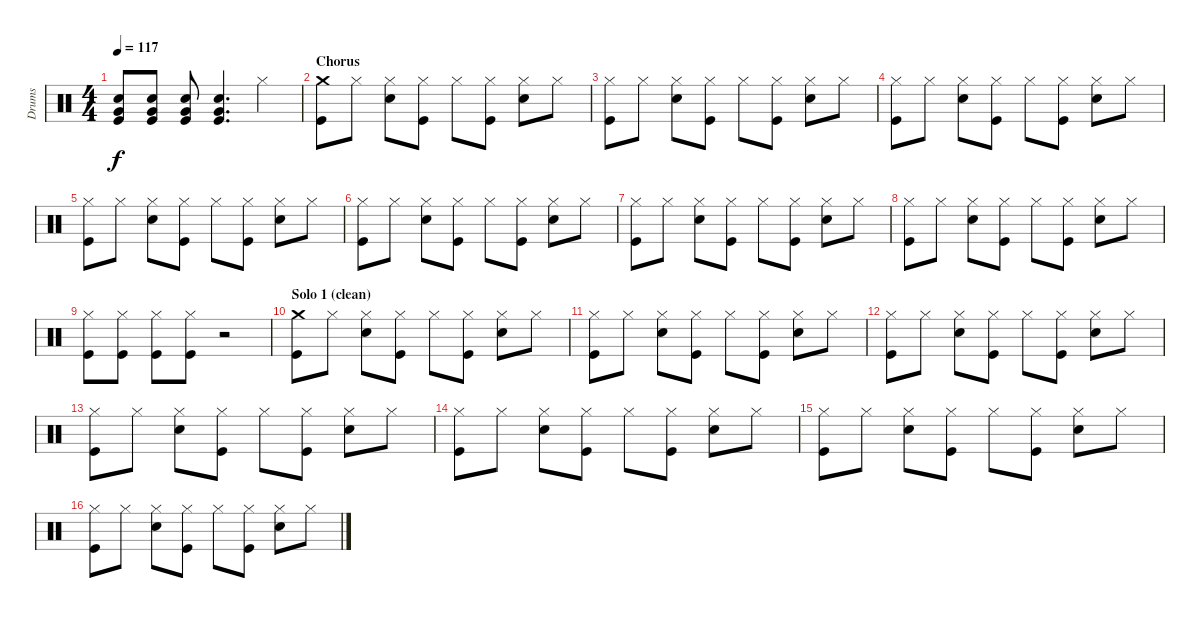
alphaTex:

\track ("Drums" "Drums") {instrument percussion}
\staff {score}
\articulation defaults
\ts (4 4)
\tempo 117
\clef neutral
\ks c
("Very Low Tom (hit)" "Snare (hit) 2" "Kick (hit)").8{dy f} ("Very Low Tom (hit)" "Snare (hit) 2" "Kick (hit)").8 ("Very Low Tom (hit)" "Snare (hit) 2" "Kick (hit)").8 ("Very Low Tom (hit)" "Snare (hit) 2" "Kick (hit)").4{d} "Hi-Hat (closed)".4 |
\section ("" "Chorus")
("Crash medium (hit)" "Kick (hit)").8 "Hi-Hat (closed)".8 ("Hi-Hat (closed)" "Snare (hit) 2").8 ("Hi-Hat (closed)" "Kick (hit)").8 "Hi-Hat (closed)".8 ("Hi-Hat (closed)" "Kick (hit)").8 ("Hi-Hat (closed)" "Snare (hit) 2").8 "Hi-Hat (closed)".8 |
("Hi-Hat (closed)" "Kick (hit)").8 "Hi-Hat (closed)".8 ("Hi-Hat (closed)" "Snare (hit) 2").8 ("Hi-Hat (closed)" "Kick (hit)").8 "Hi-Hat (closed)".8 ("Hi-Hat (closed)" "Kick (hit)").8 ("Hi-Hat (closed)" "Snare (hit) 2").8 "Hi-Hat (closed)".8 |
("Hi-Hat (closed)" "Kick (hit)").8 "Hi-Hat (closed)".8 ("Hi-Hat (closed)" "Snare (hit) 2").8 ("Hi-Hat (closed)" "Kick (hit)").8 "Hi-Hat (closed)".8 ("Hi-Hat (closed)" "Kick (hit)").8 ("Hi-Hat (closed)" "Snare (hit) 2").8 "Hi-Hat (closed)".8 |
("Hi-Hat (closed)" "Kick (hit)").8 "Hi-Hat (closed)".8 ("Hi-Hat (closed)" "Snare (hit) 2").8 ("Hi-Hat (closed)" "Kick (hit)").8 "Hi-Hat (closed)".8 ("Hi-Hat (closed)" "Kick (hit)").8 ("Hi-Hat (closed)" "Snare (hit) 2").8 "Hi-Hat (closed)".8 |
("Hi-Hat (closed)" "Kick (hit)").8 "Hi-Hat (closed)".8 ("Hi-Hat (closed)" "Snare (hit) 2").8 ("Hi-Hat (closed)" "Kick (hit)").8 "Hi-Hat (closed)".8 ("Hi-Hat (closed)" "Kick (hit)").8 ("Hi-Hat (closed)" "Snare (hit) 2").8 "Hi-Hat (closed)".8 |
("Hi-Hat (closed)" "Kick (hit)").8 "Hi-Hat (closed)".8 ("Hi-Hat (closed)" "Snare (hit) 2").8 ("Hi-Hat (closed)" "Kick (hit)").8 "Hi-Hat (closed)".8 ("Hi-Hat (closed)" "Kick (hit)").8 ("Hi-Hat (closed)" "Snare (hit) 2").8 "Hi-Hat (closed)".8 |
("Hi-Hat (closed)" "Kick (hit)").8 "Hi-Hat (closed)".8 ("Hi-Hat (closed)" "Snare (hit) 2").8 ("Hi-Hat (closed)" "Kick (hit)").8 "Hi-Hat (closed)".8 ("Hi-Hat (closed)" "Kick (hit)").8 ("Hi-Hat (closed)" "Snare (hit) 2").8 "Hi-Hat (closed)".8 |
("Hi-Hat (closed)" "Kick (hit)").8 ("Hi-Hat (closed)" "Kick (hit)").8 ("Hi-Hat (closed)" "Kick (hit)").8 ("Hi-Hat (closed)" "Kick (hit)").8 r.2 |
\section ("" "Solo 1 (clean)")
("Crash medium (hit)" "Kick (hit)").8 "Hi-Hat (closed)".8 ("Hi-Hat (closed)" "Snare (hit) 2").8 ("Hi-Hat (closed)" "Kick (hit)").8 "Hi-Hat (closed)".8 ("Hi-Hat (closed)" "Kick (hit)").8 ("Hi-Hat (closed)" "Snare (hit) 2").8 "Hi-Hat (closed)".8 |
("Hi-Hat (closed)" "Kick (hit)").8 "Hi-Hat (closed)".8 ("Hi-Hat (closed)" "Snare (hit) 2").8 ("Hi-Hat (closed)" "Kick (hit)").8 "Hi-Hat (closed)".8 ("Hi-Hat (closed)" "Kick (hit)").8 ("Hi-Hat (closed)" "Snare (hit) 2").8 "Hi-Hat (closed)".8 |
("Hi-Hat (closed)" "Kick (hit)").8 "Hi-Hat (closed)".8 ("Hi-Hat (closed)" "Snare (hit) 2").8 ("Hi-Hat (closed)" "Kick (hit)").8 "Hi-Hat (closed)".8 ("Hi-Hat (closed)" "Kick (hit)").8 ("Hi-Hat (closed)" "Snare (hit) 2").8 "Hi-Hat (closed)".8 |
("Hi-Hat (closed)" "Kick (hit)").8 "Hi-Hat (closed)".8 ("Hi-Hat (closed)" "Snare (hit) 2").8 ("Hi-Hat (closed)" "Kick (hit)").8 "Hi-Hat (closed)".8 ("Hi-Hat (closed)" "Kick (hit)").8 ("Hi-Hat (closed)" "Snare (hit) 2").8 "Hi-Hat (closed)".8 |
("Hi-Hat (closed)" "Kick (hit)").8 "Hi-Hat (closed)".8 ("Hi-Hat (closed)" "Snare (hit) 2").8 ("Hi-Hat (closed)" "Kick (hit)").8 "Hi-Hat (closed)".8 ("Hi-Hat (closed)" "Kick (hit)").8 ("Hi-Hat (closed)" "Snare (hit) 2").8 "Hi-Hat (closed)".8 |
("Hi-Hat (closed)" "Kick (hit)").8 "Hi-Hat (closed)".8 ("Hi-Hat (closed)" "Snare (hit) 2").8 ("Hi-Hat (closed)" "Kick (hit)").8 "Hi-Hat (closed)".8 ("Hi-Hat (closed)" "Kick (hit)").8 ("Hi-Hat (closed)" "Snare (hit) 2").8 "Hi-Hat (closed)".8 |
("Hi-Hat (closed)" "Kick (hit)").8 "Hi-Hat (closed)".8 ("Hi-Hat (closed)" "Snare (hit) 2").8 ("Hi-Hat (closed)" "Kick (hit)").8 "Hi-Hat (closed)".8 ("Hi-Hat (closed)" "Kick (hit)").8 ("Hi-Hat (closed)" "Snare (hit) 2").8 "Hi-Hat (closed)".8
